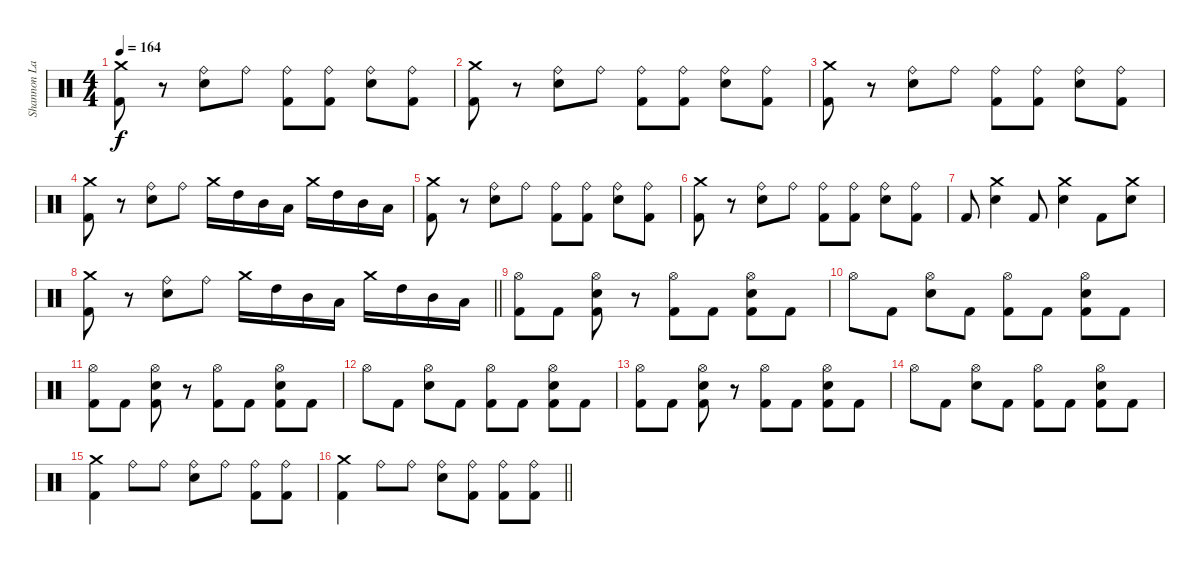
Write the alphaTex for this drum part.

\track ("Shannon Larkin" "Shannon La") {instrument percussion}
\staff {score}
\articulation defaults
\ts (4 4)
\tempo 164
\clef neutral
\ks c
("Crash medium (hit)" "Kick (hit) 2").8{dy f} r.8 ("Ride (bell)" "Electric Snare (hit)").8 "Ride (bell)".8 ("Ride (bell)" "Kick (hit) 2").8 ("Ride (bell)" "Kick (hit) 2").8 ("Ride (bell)" "Electric Snare (hit)").8 ("Ride (bell)" "Kick (hit) 2").8 |
("Crash medium (hit)" "Kick (hit) 2").8 r.8 ("Ride (bell)" "Electric Snare (hit)").8 "Ride (bell)".8 ("Ride (bell)" "Kick (hit) 2").8 ("Ride (bell)" "Kick (hit) 2").8 ("Ride (bell)" "Electric Snare (hit)").8 ("Ride (bell)" "Kick (hit) 2").8 |
("Crash medium (hit)" "Kick (hit) 2").8 r.8 ("Ride (bell)" "Electric Snare (hit)").8 "Ride (bell)".8 ("Ride (bell)" "Kick (hit) 2").8 ("Ride (bell)" "Kick (hit) 2").8 ("Ride (bell)" "Electric Snare (hit)").8 ("Ride (bell)" "Kick (hit) 2").8 |
("Crash medium (hit)" "Kick (hit) 2").8 r.8 ("Ride (bell)" "Electric Snare (hit)").8 "Ride (bell)".8 "Crash medium (hit)".16 "High Tom (hit)".16 "Mid Tom (hit)".16 "Low Tom (hit)".16 "Crash medium (hit)".16 "High Tom (hit)".16 "Mid Tom (hit)".16 "Low Tom (hit)".16 |
("Crash medium (hit)" "Kick (hit) 2").8 r.8 ("Ride (bell)" "Electric Snare (hit)").8 "Ride (bell)".8 ("Ride (bell)" "Kick (hit) 2").8 ("Ride (bell)" "Kick (hit) 2").8 ("Ride (bell)" "Electric Snare (hit)").8 ("Ride (bell)" "Kick (hit) 2").8 |
("Crash medium (hit)" "Kick (hit) 2").8 r.8 ("Ride (bell)" "Electric Snare (hit)").8 "Ride (bell)".8 ("Ride (bell)" "Kick (hit) 2").8 ("Ride (bell)" "Kick (hit) 2").8 ("Ride (bell)" "Electric Snare (hit)").8 ("Ride (bell)" "Kick (hit) 2").8 |
"Kick (hit) 2".8 ("Crash medium (hit)" "Electric Snare (hit)").4 "Kick (hit) 2".8 ("Crash medium (hit)" "Electric Snare (hit)").4 "Kick (hit) 2".8 ("Crash medium (hit)" "Electric Snare (hit)").8 |
\barLineRight lightlight
("Crash medium (hit)" "Kick (hit) 2").8 r.8 ("Ride (bell)" "Electric Snare (hit)").8 "Ride (bell)".8 "Crash medium (hit)".16 "High Tom (hit)".16 "Mid Tom (hit)".16 "Low Tom (hit)".16 "Crash medium (hit)".16 "High Tom (hit)".16 "Mid Tom (hit)".16 "Low Tom (hit)".16 |
\section ("" "")
("Hi-Hat (open)" "Kick (hit) 2").8 "Kick (hit) 2".8 ("Hi-Hat (open)" "Electric Snare (hit)" "Kick (hit) 2").8 r.8 ("Hi-Hat (open)" "Kick (hit) 2").8 "Kick (hit) 2".8 ("Hi-Hat (open)" "Electric Snare (hit)" "Kick (hit) 2").8 "Kick (hit) 2".8 |
"Hi-Hat (open)".8 "Kick (hit) 2".8 ("Hi-Hat (open)" "Electric Snare (hit)").8 "Kick (hit) 2".8 ("Hi-Hat (open)" "Kick (hit) 2").8 "Kick (hit) 2".8 ("Hi-Hat (open)" "Electric Snare (hit)" "Kick (hit) 2").8 "Kick (hit) 2".8 |
("Hi-Hat (open)" "Kick (hit) 2").8 "Kick (hit) 2".8 ("Hi-Hat (open)" "Electric Snare (hit)" "Kick (hit) 2").8 r.8 ("Hi-Hat (open)" "Kick (hit) 2").8 "Kick (hit) 2".8 ("Hi-Hat (open)" "Electric Snare (hit)" "Kick (hit) 2").8 "Kick (hit) 2".8 |
"Hi-Hat (open)".8 "Kick (hit) 2".8 ("Hi-Hat (open)" "Electric Snare (hit)").8 "Kick (hit) 2".8 ("Hi-Hat (open)" "Kick (hit) 2").8 "Kick (hit) 2".8 ("Hi-Hat (open)" "Electric Snare (hit)" "Kick (hit) 2").8 "Kick (hit) 2".8 |
("Hi-Hat (open)" "Kick (hit) 2").8 "Kick (hit) 2".8 ("Hi-Hat (open)" "Electric Snare (hit)" "Kick (hit) 2").8 r.8 ("Hi-Hat (open)" "Kick (hit) 2").8 "Kick (hit) 2".8 ("Hi-Hat (open)" "Electric Snare (hit)" "Kick (hit) 2").8 "Kick (hit) 2".8 |
"Hi-Hat (open)".8 "Kick (hit) 2".8 ("Hi-Hat (open)" "Electric Snare (hit)").8 "Kick (hit) 2".8 ("Hi-Hat (open)" "Kick (hit) 2").8 "Kick (hit) 2".8 ("Hi-Hat (open)" "Electric Snare (hit)" "Kick (hit) 2").8 "Kick (hit) 2".8 |
("Crash medium (hit)" "Kick (hit) 2").4 "Ride (bell)".8 "Ride (bell)".8 ("Ride (bell)" "Electric Snare (hit)").8 "Ride (bell)".8 ("Ride (bell)" "Kick (hit) 2").8 ("Ride (bell)" "Kick (hit) 2").8 |
\barLineRight lightlight
("Crash medium (hit)" "Kick (hit) 2").4 "Ride (bell)".8 "Ride (bell)".8 ("Ride (bell)" "Electric Snare (hit)").8 ("Ride (bell)" "Kick (hit) 2").8 ("Ride (bell)" "Kick (hit) 2").8 ("Ride (bell)" "Kick (hit) 2").8
